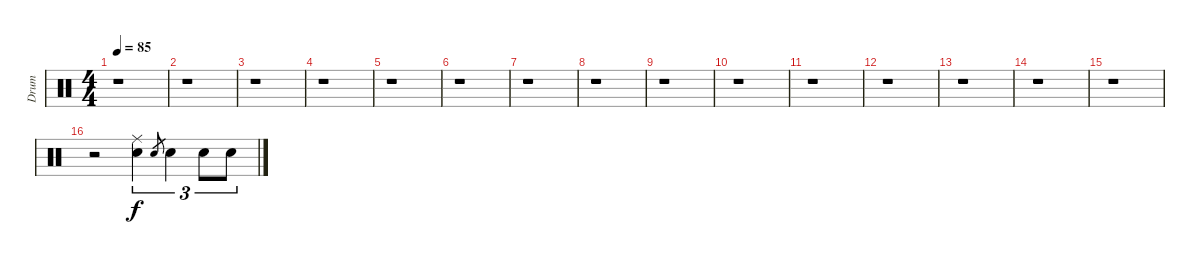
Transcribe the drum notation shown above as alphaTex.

\track ("Drum" "Drum") {instrument percussion}
\staff {score}
\articulation defaults
\ts (4 4)
\tempo 85
\clef neutral
\ks c
r.1{dy f} |
r.1 |
r.1 |
r.1 |
r.1 |
r.1 |
r.1 |
r.1 |
r.1 |
r.1 |
r.1 |
r.1 |
r.1 |
r.1 |
r.1 |
r.2 ("Ride (middle)" "Snare (hit) 2").4{tu (3 2)} "Snare (hit) 2".8{gr} "Snare (hit) 2".4{tu (3 2)} "Snare (hit) 2".8{tu (3 2)} "Snare (hit) 2".8{tu (3 2)}
